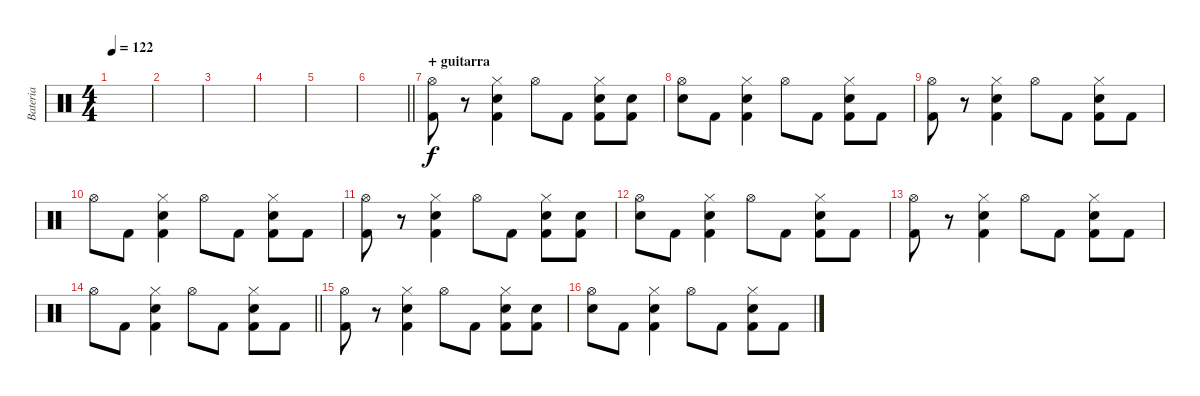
\track ("Bateria" "Bateria") {instrument percussion}
\staff {score}
\articulation defaults
\ts (4 4)
\tempo 122
\clef neutral
\ks c
|
|
|
|
|
\barLineRight lightlight
|
\section ("" "+ guitarra")
("Kick (hit) 2" "Hi-Hat (open)").8 r.8 ("Kick (hit) 2" "Snare (hit) 2" "Hi-Hat (closed)").4 "Hi-Hat (open)".8 "Kick (hit) 2".8 ("Kick (hit) 2" "Snare (hit) 2" "Hi-Hat (closed)").8 ("Kick (hit) 2" "Snare (hit)").8 |
("Hi-Hat (open)" "Snare (hit)").8 "Kick (hit) 2".8 ("Kick (hit) 2" "Snare (hit) 2" "Hi-Hat (closed)").4 "Hi-Hat (open)".8 "Kick (hit) 2".8 ("Kick (hit) 2" "Snare (hit) 2" "Hi-Hat (closed)").8 "Kick (hit) 2".8 |
("Kick (hit) 2" "Hi-Hat (open)").8 r.8 ("Kick (hit) 2" "Snare (hit) 2" "Hi-Hat (closed)").4 "Hi-Hat (open)".8 "Kick (hit) 2".8 ("Kick (hit) 2" "Snare (hit) 2" "Hi-Hat (closed)").8 "Kick (hit) 2".8 |
"Hi-Hat (open)".8 "Kick (hit) 2".8 ("Kick (hit) 2" "Snare (hit) 2" "Hi-Hat (closed)").4 "Hi-Hat (open)".8 "Kick (hit) 2".8 ("Kick (hit) 2" "Snare (hit) 2" "Hi-Hat (closed)").8 "Kick (hit) 2".8 |
("Kick (hit) 2" "Hi-Hat (open)").8 r.8 ("Kick (hit) 2" "Snare (hit) 2" "Hi-Hat (closed)").4 "Hi-Hat (open)".8 "Kick (hit) 2".8 ("Kick (hit) 2" "Snare (hit) 2" "Hi-Hat (closed)").8 ("Kick (hit) 2" "Snare (hit)").8 |
("Hi-Hat (open)" "Snare (hit)").8 "Kick (hit) 2".8 ("Kick (hit) 2" "Snare (hit) 2" "Hi-Hat (closed)").4 "Hi-Hat (open)".8 "Kick (hit) 2".8 ("Kick (hit) 2" "Snare (hit) 2" "Hi-Hat (closed)").8 "Kick (hit) 2".8 |
("Kick (hit) 2" "Hi-Hat (open)").8 r.8 ("Kick (hit) 2" "Snare (hit) 2" "Hi-Hat (closed)").4 "Hi-Hat (open)".8 "Kick (hit) 2".8 ("Kick (hit) 2" "Snare (hit) 2" "Hi-Hat (closed)").8 "Kick (hit) 2".8 |
\barLineRight lightlight "Hi-Hat (open)".8 "Kick (hit) 2".8
("Kick (hit) 2" "Snare (hit) 2" "Hi-Hat (closed)").4 "Hi-Hat (open)".8 "Kick (hit) 2".8 ("Kick (hit) 2" "Snare (hit) 2" "Hi-Hat (closed)").8 "Kick (hit) 2".8 |
("Kick (hit) 2" "Hi-Hat (open)").8 r.8 ("Kick (hit) 2" "Snare (hit) 2" "Hi-Hat (closed)").4 "Hi-Hat (open)".8 "Kick (hit) 2".8 ("Kick (hit) 2" "Snare (hit) 2" "Hi-Hat (closed)").8 ("Kick (hit) 2" "Snare (hit)").8 |
("Hi-Hat (open)" "Snare (hit)").8 "Kick (hit) 2".8 ("Kick (hit) 2" "Snare (hit) 2" "Hi-Hat (closed)").4 "Hi-Hat (open)".8 "Kick (hit) 2".8 ("Kick (hit) 2" "Snare (hit) 2" "Hi-Hat (closed)").8 "Kick (hit) 2".8
